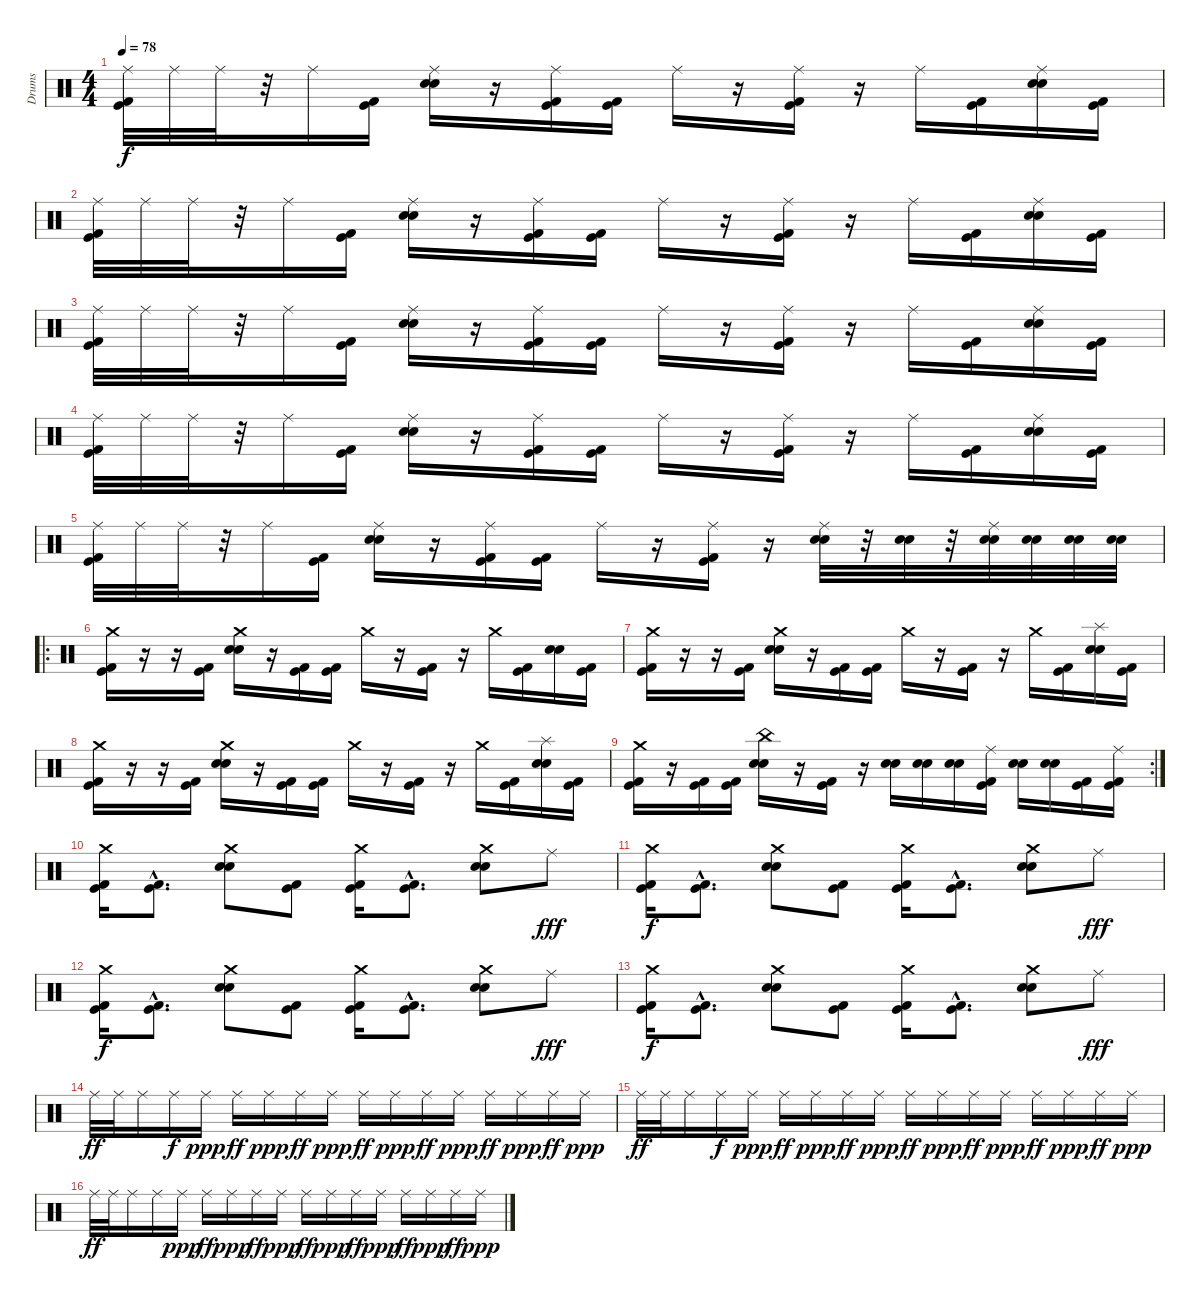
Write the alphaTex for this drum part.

\track ("Drums" "Drums") {instrument percussion}
\staff {score}
\articulation defaults
\ts (4 4)
\tempo 78
\clef neutral
\ks c
("Ride (middle)" "Kick (hit)" "Kick (hit) 2").32{dy f} "Ride (middle)".32 "Ride (middle)".32 r.32 "Ride (middle)".16 ("Kick (hit)" "Kick (hit) 2").16 ("Ride (middle)" "Snare (hit) 2" "Snare (hit) 2").16 r.16 ("Ride (middle)" "Kick (hit)" "Kick (hit) 2").16 ("Kick (hit)" "Kick (hit) 2").16 "Ride (middle)".16 r.16 ("Ride (middle)" "Kick (hit)" "Kick (hit) 2").16 r.16 "Ride (middle)".16 ("Kick (hit)" "Kick (hit) 2").16 ("Ride (middle)" "Snare (hit) 2" "Snare (hit) 2").16 ("Kick (hit)" "Kick (hit) 2").16 |
("Ride (middle)" "Kick (hit)" "Kick (hit) 2").32 "Ride (middle)".32 "Ride (middle)".32 r.32 "Ride (middle)".16 ("Kick (hit)" "Kick (hit) 2").16 ("Ride (middle)" "Snare (hit) 2" "Snare (hit) 2").16 r.16 ("Ride (middle)" "Kick (hit)" "Kick (hit) 2").16 ("Kick (hit)" "Kick (hit) 2").16 "Ride (middle)".16 r.16 ("Ride (middle)" "Kick (hit)" "Kick (hit) 2").16 r.16 "Ride (middle)".16 ("Kick (hit)" "Kick (hit) 2").16 ("Ride (middle)" "Snare (hit) 2" "Snare (hit) 2").16 ("Kick (hit)" "Kick (hit) 2").16 |
("Ride (middle)" "Kick (hit)" "Kick (hit) 2").32 "Ride (middle)".32 "Ride (middle)".32 r.32 "Ride (middle)".16 ("Kick (hit)" "Kick (hit) 2").16 ("Ride (middle)" "Snare (hit) 2" "Snare (hit) 2").16 r.16 ("Ride (middle)" "Kick (hit)" "Kick (hit) 2").16 ("Kick (hit)" "Kick (hit) 2").16 "Ride (middle)".16 r.16 ("Ride (middle)" "Kick (hit)" "Kick (hit) 2").16 r.16 "Ride (middle)".16 ("Kick (hit)" "Kick (hit) 2").16 ("Ride (middle)" "Snare (hit) 2" "Snare (hit) 2").16 ("Kick (hit)" "Kick (hit) 2").16 |
("Ride (middle)" "Kick (hit)" "Kick (hit) 2").32 "Ride (middle)".32 "Ride (middle)".32 r.32 "Ride (middle)".16 ("Kick (hit)" "Kick (hit) 2").16 ("Ride (middle)" "Snare (hit) 2" "Snare (hit) 2").16 r.16 ("Ride (middle)" "Kick (hit)" "Kick (hit) 2").16 ("Kick (hit)" "Kick (hit) 2").16 "Ride (middle)".16 r.16 ("Ride (middle)" "Kick (hit)" "Kick (hit) 2").16 r.16 "Ride (middle)".16 ("Kick (hit)" "Kick (hit) 2").16 ("Ride (middle)" "Snare (hit) 2" "Snare (hit) 2").16 ("Kick (hit)" "Kick (hit) 2").16 |
("Ride (middle)" "Kick (hit)" "Kick (hit) 2").32 "Ride (middle)".32 "Ride (middle)".32 r.32 "Ride (middle)".16 ("Kick (hit)" "Kick (hit) 2").16 ("Ride (middle)" "Snare (hit) 2" "Snare (hit) 2").16 r.16 ("Ride (middle)" "Kick (hit)" "Kick (hit) 2").16 ("Kick (hit)" "Kick (hit) 2").16 "Ride (middle)".16 r.16 ("Ride (middle)" "Kick (hit)" "Kick (hit) 2").16 r.16 ("Ride (middle)" "Snare (hit) 2" "Snare (hit) 2").32 r.32 ("Snare (hit) 2" "Snare (hit) 2").32 r.32 ("Ride (middle)" "Snare (hit) 2" "Snare (hit) 2").32 ("Snare (hit) 2" "Snare (hit) 2").32 ("Snare (hit) 2" "Snare (hit) 2").32 ("Snare (hit) 2" "Snare (hit) 2").32 |
\ro
("Crash medium (hit)" "Kick (hit)" "Kick (hit) 2").16 r.16 r.16 ("Kick (hit)" "Kick (hit) 2").16 ("Crash medium (hit)" "Snare (hit) 2" "Snare (hit) 2").16 r.16 ("Kick (hit)" "Kick (hit) 2").16 ("Kick (hit)" "Kick (hit) 2").16 "Crash medium (hit)".16 r.16 ("Kick (hit)" "Kick (hit) 2").16 r.16 "Crash medium (hit)".16 ("Kick (hit)" "Kick (hit) 2").16 ("Snare (hit) 2" "Snare (hit) 2").16 ("Kick (hit)" "Kick (hit) 2").16 |
("Crash medium (hit)" "Kick (hit)" "Kick (hit) 2").16 r.16 r.16 ("Kick (hit)" "Kick (hit) 2").16 ("Crash medium (hit)" "Snare (hit) 2" "Snare (hit) 2").16 r.16 ("Kick (hit)" "Kick (hit) 2").16 ("Kick (hit)" "Kick (hit) 2").16 "Crash medium (hit)".16 r.16 ("Kick (hit)" "Kick (hit) 2").16 r.16 "Crash medium (hit)".16 ("Kick (hit)" "Kick (hit) 2").16 ("Splash (hit)" "Snare (hit) 2" "Snare (hit) 2").16 ("Kick (hit)" "Kick (hit) 2").16 |
("Crash medium (hit)" "Kick (hit)" "Kick (hit) 2").16 r.16 r.16 ("Kick (hit)" "Kick (hit) 2").16 ("Crash medium (hit)" "Snare (hit) 2" "Snare (hit) 2").16 r.16 ("Kick (hit)" "Kick (hit) 2").16 ("Kick (hit)" "Kick (hit) 2").16 "Crash medium (hit)".16 r.16 ("Kick (hit)" "Kick (hit) 2").16 r.16 "Crash medium (hit)".16 ("Kick (hit)" "Kick (hit) 2").16 ("Splash (hit)" "Snare (hit) 2" "Snare (hit) 2").16 ("Kick (hit)" "Kick (hit) 2").16 |
\rc 2
("Crash medium (hit)" "Kick (hit)" "Kick (hit) 2").16 r.16 ("Kick (hit)" "Kick (hit) 2").16 ("Kick (hit)" "Kick (hit) 2").16 ("China (hit)" "Snare (hit) 2" "Snare (hit) 2").16 r.16 ("Kick (hit) 2" "Kick (hit)").16 r.16 ("Snare (hit) 2" "Snare (hit) 2").16 ("Snare (hit) 2" "Snare (hit) 2").16 ("Snare (hit) 2" "Snare (hit) 2").16 ("Ride (middle)" "Kick (hit) 2" "Kick (hit)").16 ("Snare (hit) 2" "Snare (hit) 2").16 ("Snare (hit) 2" "Snare (hit) 2").16 ("Kick (hit) 2" "Kick (hit)").16 ("Ride (middle)" "Kick (hit) 2" "Kick (hit)").16 |
("Crash medium (hit)" "Kick (hit) 2" "Kick (hit)").16 ("Kick (hit) 2"{hac} "Kick (hit)"{hac}).8{d} ("Crash medium (hit)" "Snare (hit) 2" "Snare (hit) 2").8 ("Kick (hit) 2" "Kick (hit)").8 ("Crash medium (hit)" "Kick (hit) 2" "Kick (hit)").16 ("Kick (hit) 2"{hac} "Kick (hit)"{hac}).8{d} ("Crash medium (hit)" "Snare (hit) 2" "Snare (hit) 2").8 "Ride (middle)".8{dy fff} |
("Crash medium (hit)" "Kick (hit) 2" "Kick (hit)").16{dy f} ("Kick (hit) 2"{hac} "Kick (hit)"{hac}).8{d} ("Crash medium (hit)" "Snare (hit) 2" "Snare (hit) 2").8 ("Kick (hit) 2" "Kick (hit)").8 ("Crash medium (hit)" "Kick (hit) 2" "Kick (hit)").16 ("Kick (hit) 2"{hac} "Kick (hit)"{hac}).8{d} ("Crash medium (hit)" "Snare (hit) 2" "Snare (hit) 2").8 "Ride (middle)".8{dy fff} |
("Crash medium (hit)" "Kick (hit) 2" "Kick (hit)").16{dy f} ("Kick (hit) 2"{hac} "Kick (hit)"{hac}).8{d} ("Crash medium (hit)" "Snare (hit) 2" "Snare (hit) 2").8 ("Kick (hit) 2" "Kick (hit)").8 ("Crash medium (hit)" "Kick (hit) 2" "Kick (hit)").16 ("Kick (hit) 2"{hac} "Kick (hit)"{hac}).8{d} ("Crash medium (hit)" "Snare (hit) 2" "Snare (hit) 2").8 "Ride (middle)".8{dy fff} |
("Crash medium (hit)" "Kick (hit) 2" "Kick (hit)").16{dy f} ("Kick (hit) 2"{hac} "Kick (hit)"{hac}).8{d} ("Crash medium (hit)" "Snare (hit) 2" "Snare (hit) 2").8 ("Kick (hit) 2" "Kick (hit)").8 ("Crash medium (hit)" "Kick (hit) 2" "Kick (hit)").16 ("Kick (hit) 2"{hac} "Kick (hit)"{hac}).8{d} ("Crash medium (hit)" "Snare (hit) 2" "Snare (hit) 2").8 "Ride (middle)".8{dy fff} |
"Ride (middle)".32{dy ff} "Ride (middle)".32 "Ride (middle)".16 "Ride (middle)".16{dy f} "Ride (middle)".16{dy ppp} "Ride (middle)".16{dy ff} "Ride (middle)".16{dy ppp} "Ride (middle)".16{dy ff} "Ride (middle)".16{dy ppp} "Ride (middle)".16{dy ff} "Ride (middle)".16{dy ppp} "Ride (middle)".16{dy ff} "Ride (middle)".16{dy ppp} "Ride (middle)".16{dy ff} "Ride (middle)".16{dy ppp} "Ride (middle)".16{dy ff} "Ride (middle)".16{dy ppp} |
"Ride (middle)".32{dy ff} "Ride (middle)".32 "Ride (middle)".16 "Ride (middle)".16{dy f} "Ride (middle)".16{dy ppp} "Ride (middle)".16{dy ff} "Ride (middle)".16{dy ppp} "Ride (middle)".16{dy ff} "Ride (middle)".16{dy ppp} "Ride (middle)".16{dy ff} "Ride (middle)".16{dy ppp} "Ride (middle)".16{dy ff} "Ride (middle)".16{dy ppp} "Ride (middle)".16{dy ff} "Ride (middle)".16{dy ppp} "Ride (middle)".16{dy ff} "Ride (middle)".16{dy ppp} |
"Ride (middle)".32{dy ff} "Ride (middle)".32 "Ride (middle)".16 "Ride (middle)".16 "Ride (middle)".16{dy ppp} "Ride (middle)".16{dy ff} "Ride (middle)".16{dy ppp} "Ride (middle)".16{dy ff} "Ride (middle)".16{dy ppp} "Ride (middle)".16{dy ff} "Ride (middle)".16{dy ppp} "Ride (middle)".16{dy ff} "Ride (middle)".16{dy ppp} "Ride (middle)".16{dy ff} "Ride (middle)".16{dy ppp} "Ride (middle)".16{dy ff} "Ride (middle)".16{dy ppp}
